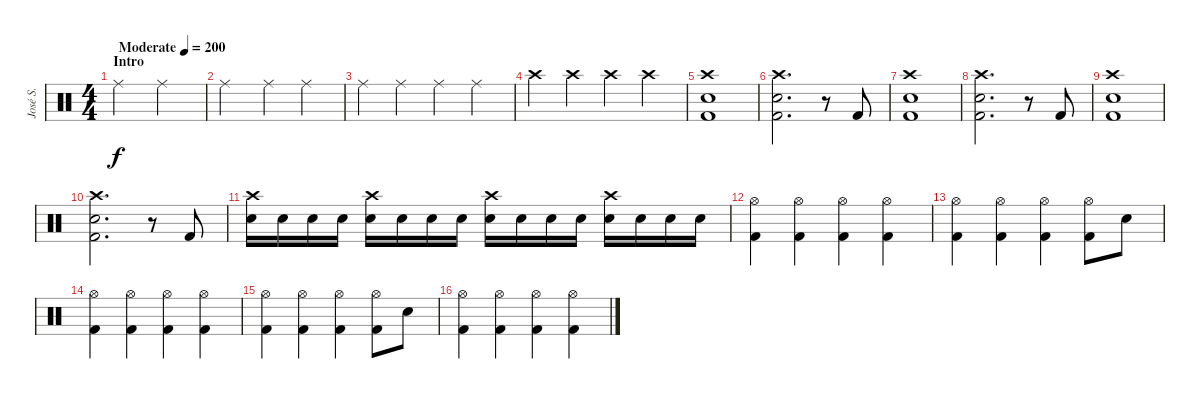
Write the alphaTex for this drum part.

\track ("José S." "José S.") {instrument percussion}
\staff {score}
\articulation defaults
\ts (4 4)
\section ("" "Intro")
\tempo (200 "Moderate")
\clef neutral
\ks c "Ride (middle)".2{dy f} "Ride (middle)".2
|
"Ride (middle)".2 "Ride (middle)".4 "Ride (middle)".4 |
"Ride (middle)".4 "Ride (middle)".4 "Ride (middle)".4 "Ride (middle)".4 |
"Crash high (hit)".4 "Crash high (hit)".4 "Crash high (hit)".4 "Crash high (hit)".4 |
("Crash high (hit)" "Electric Snare (hit)" "Kick (hit) 2").1 |
("Crash high (hit)" "Electric Snare (hit)" "Kick (hit) 2").2{d} r.8 "Kick (hit) 2".8 |
("Crash high (hit)" "Electric Snare (hit)" "Kick (hit) 2").1 |
("Crash high (hit)" "Electric Snare (hit)" "Kick (hit) 2").2{d} r.8 "Kick (hit) 2".8 |
("Crash high (hit)" "Electric Snare (hit)" "Kick (hit) 2").1 |
("Crash high (hit)" "Electric Snare (hit)" "Kick (hit) 2").2{d} r.8 "Kick (hit) 2".8 |
("Crash high (hit)" "Snare (hit) 2").16 "Snare (hit) 2".16 "Snare (hit) 2".16 "Snare (hit) 2".16 ("Crash high (hit)" "Snare (hit) 2").16 "Snare (hit) 2".16 "Snare (hit) 2".16 "Snare (hit) 2".16 ("Crash high (hit)" "Snare (hit) 2").16 "Snare (hit) 2".16 "Snare (hit) 2".16 "Snare (hit) 2".16 ("Crash high (hit)" "Snare (hit) 2").16 "Snare (hit) 2".16 "Snare (hit) 2".16 "Snare (hit) 2".16 |
("Hi-Hat (open)" "Kick (hit) 2").4 ("Hi-Hat (open)" "Kick (hit) 2").4 ("Hi-Hat (open)" "Kick (hit) 2").4 ("Hi-Hat (open)" "Kick (hit) 2").4 |
("Hi-Hat (open)" "Kick (hit) 2").4 ("Hi-Hat (open)" "Kick (hit) 2").4 ("Hi-Hat (open)" "Kick (hit) 2").4 ("Hi-Hat (open)" "Kick (hit) 2").8 "Electric Snare (hit)".8 |
("Hi-Hat (open)" "Kick (hit) 2").4 ("Hi-Hat (open)" "Kick (hit) 2").4 ("Hi-Hat (open)" "Kick (hit) 2").4 ("Hi-Hat (open)" "Kick (hit) 2").4 |
("Hi-Hat (open)" "Kick (hit) 2").4 ("Hi-Hat (open)" "Kick (hit) 2").4 ("Hi-Hat (open)" "Kick (hit) 2").4 ("Hi-Hat (open)" "Kick (hit) 2").8 "Electric Snare (hit)".8 |
("Hi-Hat (open)" "Kick (hit) 2").4 ("Hi-Hat (open)" "Kick (hit) 2").4 ("Hi-Hat (open)" "Kick (hit) 2").4 ("Hi-Hat (open)" "Kick (hit) 2").4
